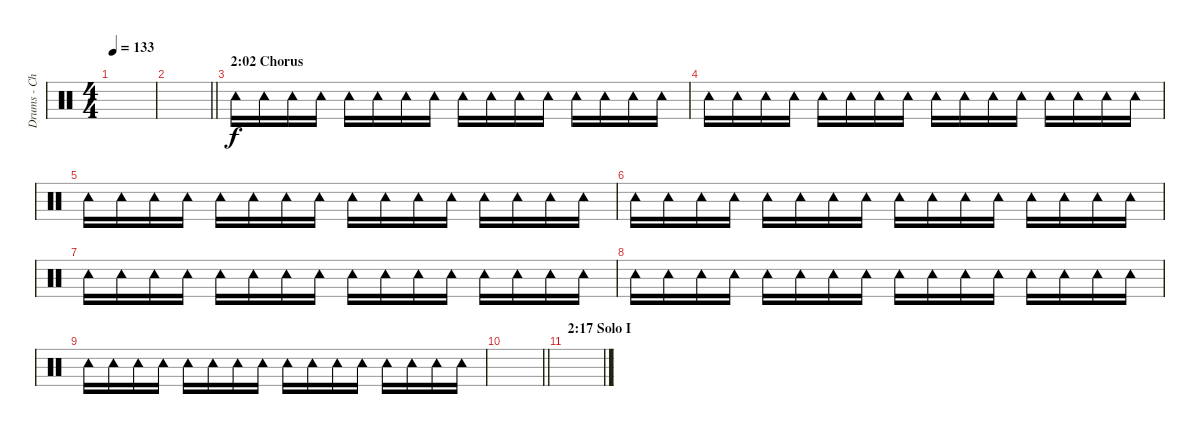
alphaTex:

\track ("Drums - Chorus - Tambourine" "Drums - Ch") {instrument percussion}
\staff {score}
\articulation defaults
\ts (4 4)
\tempo 133
\clef neutral
\ks c
|
\barLineRight lightlight
|
\section ("" "2:02 Chorus")
"Tambourine (hit)".16 "Tambourine (hit)".16 "Tambourine (hit)".16 "Tambourine (hit)".16 "Tambourine (hit)".16 "Tambourine (hit)".16 "Tambourine (hit)".16 "Tambourine (hit)".16 "Tambourine (hit)".16 "Tambourine (hit)".16 "Tambourine (hit)".16 "Tambourine (hit)".16 "Tambourine (hit)".16 "Tambourine (hit)".16 "Tambourine (hit)".16 "Tambourine (hit)".16 |
"Tambourine (hit)".16 "Tambourine (hit)".16 "Tambourine (hit)".16 "Tambourine (hit)".16 "Tambourine (hit)".16 "Tambourine (hit)".16 "Tambourine (hit)".16 "Tambourine (hit)".16 "Tambourine (hit)".16 "Tambourine (hit)".16 "Tambourine (hit)".16 "Tambourine (hit)".16 "Tambourine (hit)".16 "Tambourine (hit)".16 "Tambourine (hit)".16 "Tambourine (hit)".16 |
"Tambourine (hit)".16 "Tambourine (hit)".16 "Tambourine (hit)".16 "Tambourine (hit)".16 "Tambourine (hit)".16 "Tambourine (hit)".16 "Tambourine (hit)".16 "Tambourine (hit)".16 "Tambourine (hit)".16 "Tambourine (hit)".16 "Tambourine (hit)".16 "Tambourine (hit)".16 "Tambourine (hit)".16 "Tambourine (hit)".16 "Tambourine (hit)".16 "Tambourine (hit)".16 |
"Tambourine (hit)".16 "Tambourine (hit)".16 "Tambourine (hit)".16 "Tambourine (hit)".16 "Tambourine (hit)".16 "Tambourine (hit)".16 "Tambourine (hit)".16 "Tambourine (hit)".16 "Tambourine (hit)".16 "Tambourine (hit)".16 "Tambourine (hit)".16 "Tambourine (hit)".16 "Tambourine (hit)".16 "Tambourine (hit)".16 "Tambourine (hit)".16 "Tambourine (hit)".16 |
"Tambourine (hit)".16 "Tambourine (hit)".16 "Tambourine (hit)".16 "Tambourine (hit)".16 "Tambourine (hit)".16 "Tambourine (hit)".16 "Tambourine (hit)".16 "Tambourine (hit)".16 "Tambourine (hit)".16 "Tambourine (hit)".16 "Tambourine (hit)".16 "Tambourine (hit)".16 "Tambourine (hit)".16 "Tambourine (hit)".16 "Tambourine (hit)".16 "Tambourine (hit)".16 |
"Tambourine (hit)".16 "Tambourine (hit)".16 "Tambourine (hit)".16 "Tambourine (hit)".16 "Tambourine (hit)".16 "Tambourine (hit)".16 "Tambourine (hit)".16 "Tambourine (hit)".16 "Tambourine (hit)".16 "Tambourine (hit)".16 "Tambourine (hit)".16 "Tambourine (hit)".16 "Tambourine (hit)".16 "Tambourine (hit)".16 "Tambourine (hit)".16 "Tambourine (hit)".16 |
"Tambourine (hit)".16 "Tambourine (hit)".16 "Tambourine (hit)".16 "Tambourine (hit)".16 "Tambourine (hit)".16 "Tambourine (hit)".16 "Tambourine (hit)".16 "Tambourine (hit)".16 "Tambourine (hit)".16 "Tambourine (hit)".16 "Tambourine (hit)".16 "Tambourine (hit)".16 "Tambourine (hit)".16 "Tambourine (hit)".16 "Tambourine (hit)".16 "Tambourine (hit)".16 |
\barLineRight lightlight
|
\section ("" "2:17 Solo I")
